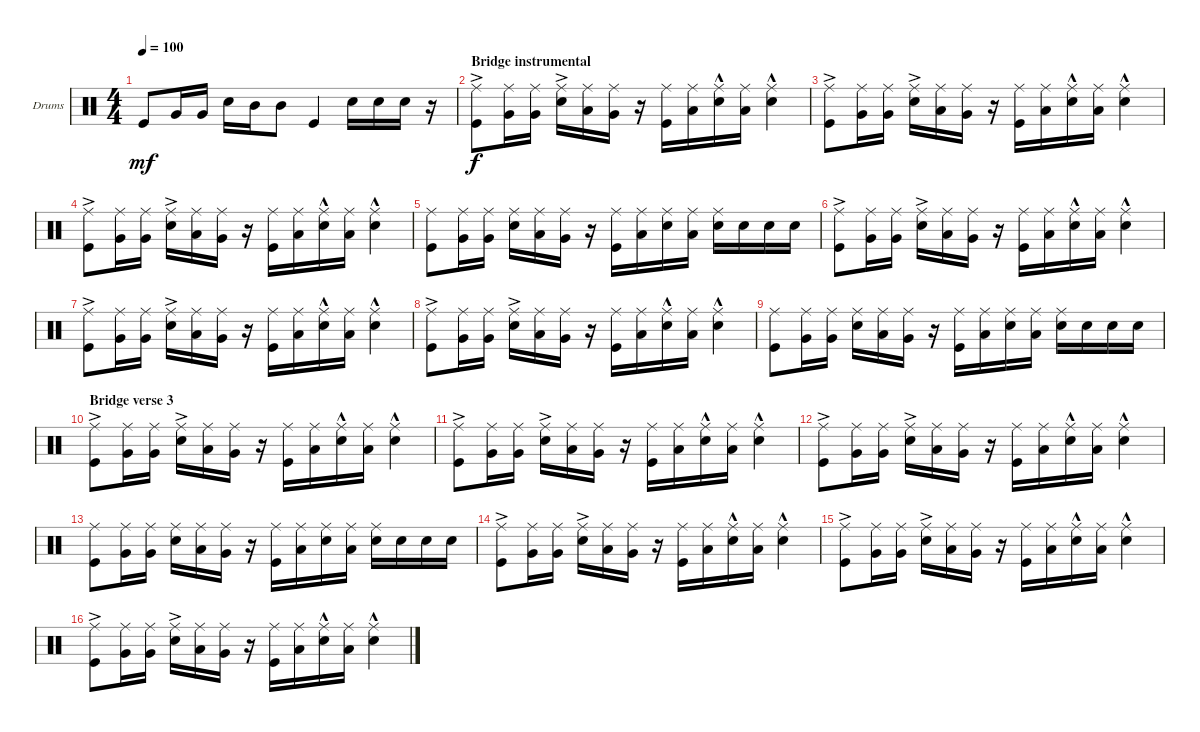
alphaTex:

\defaultSystemsLayout 4
\bracketExtendMode groupsimilarinstruments
\firstSystemTrackNameOrientation horizontal
\otherSystemsTrackNameOrientation horizontal
\track ("Dominic Howard" "Drums") {instrument percussion}
\staff {score}
\articulation defaults
\ts (4 4)
\tempo 100
\clef neutral
\ks c "Kick (hit)".8{dy mf} "Very Low Tom (hit)".16 "Very Low Tom (hit)".16 "Snare (hit) 2".16 "Mid Tom (hit)".16 "Mid Tom (hit)".8 "Kick (hit)".4 "Snare (hit) 2".16 "Snare (hit) 2".16 "Snare (hit) 2".16
r.16 |
\section ("" "Bridge instrumental")
("Kick (hit)"{ac} "Ride (middle)").8{dy f} ("Very Low Tom (hit)" "Ride (middle)").16 ("Very Low Tom (hit)" "Ride (middle)").16 ("Snare (hit) 2"{ac} "Ride (middle)").16 ("Low Tom (hit)" "Ride (middle)").16 ("Very Low Tom (hit)" "Ride (middle)").16 r.16 ("Kick (hit)" "Ride (middle)").16 ("Low Tom (hit)" "Ride (middle)").16 ("Snare (hit) 2"{hac} "Ride (middle)").16 ("Low Tom (hit)" "Ride (middle)").16 ("Snare (hit) 2"{hac} "Ride (middle)").4 |
("Kick (hit)"{ac} "Ride (middle)").8 ("Very Low Tom (hit)" "Ride (middle)").16 ("Very Low Tom (hit)" "Ride (middle)").16 ("Snare (hit) 2"{ac} "Ride (middle)").16 ("Low Tom (hit)" "Ride (middle)").16 ("Very Low Tom (hit)" "Ride (middle)").16 r.16 ("Kick (hit)" "Ride (middle)").16 ("Low Tom (hit)" "Ride (middle)").16 ("Snare (hit) 2"{hac} "Ride (middle)").16 ("Low Tom (hit)" "Ride (middle)").16 ("Snare (hit) 2"{hac} "Ride (middle)").4 |
("Kick (hit)"{ac} "Ride (middle)").8 ("Very Low Tom (hit)" "Ride (middle)").16 ("Very Low Tom (hit)" "Ride (middle)").16 ("Snare (hit) 2"{ac} "Ride (middle)").16 ("Low Tom (hit)" "Ride (middle)").16 ("Very Low Tom (hit)" "Ride (middle)").16 r.16 ("Kick (hit)" "Ride (middle)").16 ("Low Tom (hit)" "Ride (middle)").16 ("Snare (hit) 2"{hac} "Ride (middle)").16 ("Low Tom (hit)" "Ride (middle)").16 ("Snare (hit) 2"{hac} "Ride (middle)").4 |
("Kick (hit)" "Ride (middle)").8 ("Very Low Tom (hit)" "Ride (middle)").16 ("Very Low Tom (hit)" "Ride (middle)").16 ("Snare (hit) 2" "Ride (middle)").16 ("Low Tom (hit)" "Ride (middle)").16 ("Very Low Tom (hit)" "Ride (middle)").16 r.16 ("Kick (hit)" "Ride (middle)").16 ("Low Tom (hit)" "Ride (middle)").16 ("Snare (hit) 2" "Ride (middle)").16 ("Low Tom (hit)" "Ride (middle)").16 ("Snare (hit) 2" "Ride (middle)").16 "Snare (hit) 2".16 "Snare (hit) 2".16 "Snare (hit) 2".16 |
("Kick (hit)"{ac} "Ride (middle)").8 ("Very Low Tom (hit)" "Ride (middle)").16 ("Very Low Tom (hit)" "Ride (middle)").16 ("Snare (hit) 2"{ac} "Ride (middle)").16 ("Low Tom (hit)" "Ride (middle)").16 ("Very Low Tom (hit)" "Ride (middle)").16 r.16 ("Kick (hit)" "Ride (middle)").16 ("Low Tom (hit)" "Ride (middle)").16 ("Snare (hit) 2"{hac} "Ride (middle)").16 ("Low Tom (hit)" "Ride (middle)").16 ("Snare (hit) 2"{hac} "Ride (middle)").4 |
("Kick (hit)"{ac} "Ride (middle)").8 ("Very Low Tom (hit)" "Ride (middle)").16 ("Very Low Tom (hit)" "Ride (middle)").16 ("Snare (hit) 2"{ac} "Ride (middle)").16 ("Low Tom (hit)" "Ride (middle)").16 ("Very Low Tom (hit)" "Ride (middle)").16 r.16 ("Kick (hit)" "Ride (middle)").16 ("Low Tom (hit)" "Ride (middle)").16 ("Snare (hit) 2"{hac} "Ride (middle)").16 ("Low Tom (hit)" "Ride (middle)").16 ("Snare (hit) 2"{hac} "Ride (middle)").4 |
("Kick (hit)"{ac} "Ride (middle)").8 ("Very Low Tom (hit)" "Ride (middle)").16 ("Very Low Tom (hit)" "Ride (middle)").16 ("Snare (hit) 2"{ac} "Ride (middle)").16 ("Low Tom (hit)" "Ride (middle)").16 ("Very Low Tom (hit)" "Ride (middle)").16 r.16 ("Kick (hit)" "Ride (middle)").16 ("Low Tom (hit)" "Ride (middle)").16 ("Snare (hit) 2"{hac} "Ride (middle)").16 ("Low Tom (hit)" "Ride (middle)").16 ("Snare (hit) 2"{hac} "Ride (middle)").4 |
("Kick (hit)" "Ride (middle)").8 ("Very Low Tom (hit)" "Ride (middle)").16 ("Very Low Tom (hit)" "Ride (middle)").16 ("Snare (hit) 2" "Ride (middle)").16 ("Low Tom (hit)" "Ride (middle)").16 ("Very Low Tom (hit)" "Ride (middle)").16 r.16 ("Kick (hit)" "Ride (middle)").16 ("Low Tom (hit)" "Ride (middle)").16 ("Snare (hit) 2" "Ride (middle)").16 ("Low Tom (hit)" "Ride (middle)").16 ("Snare (hit) 2" "Ride (middle)").16 "Snare (hit) 2".16 "Snare (hit) 2".16 "Snare (hit) 2".16 |
\section ("" "Bridge verse 3")
("Kick (hit)"{ac} "Ride (middle)").8 ("Very Low Tom (hit)" "Ride (middle)").16 ("Very Low Tom (hit)" "Ride (middle)").16 ("Snare (hit) 2"{ac} "Ride (middle)").16 ("Low Tom (hit)" "Ride (middle)").16 ("Very Low Tom (hit)" "Ride (middle)").16 r.16 ("Kick (hit)" "Ride (middle)").16 ("Low Tom (hit)" "Ride (middle)").16 ("Snare (hit) 2"{hac} "Ride (middle)").16 ("Low Tom (hit)" "Ride (middle)").16 ("Snare (hit) 2"{hac} "Ride (middle)").4 |
("Kick (hit)"{ac} "Ride (middle)").8 ("Very Low Tom (hit)" "Ride (middle)").16 ("Very Low Tom (hit)" "Ride (middle)").16 ("Snare (hit) 2"{ac} "Ride (middle)").16 ("Low Tom (hit)" "Ride (middle)").16 ("Very Low Tom (hit)" "Ride (middle)").16 r.16 ("Kick (hit)" "Ride (middle)").16 ("Low Tom (hit)" "Ride (middle)").16 ("Snare (hit) 2"{hac} "Ride (middle)").16 ("Low Tom (hit)" "Ride (middle)").16 ("Snare (hit) 2"{hac} "Ride (middle)").4 |
("Kick (hit)"{ac} "Ride (middle)").8 ("Very Low Tom (hit)" "Ride (middle)").16 ("Very Low Tom (hit)" "Ride (middle)").16 ("Snare (hit) 2"{ac} "Ride (middle)").16 ("Low Tom (hit)" "Ride (middle)").16 ("Very Low Tom (hit)" "Ride (middle)").16 r.16 ("Kick (hit)" "Ride (middle)").16 ("Low Tom (hit)" "Ride (middle)").16 ("Snare (hit) 2"{hac} "Ride (middle)").16 ("Low Tom (hit)" "Ride (middle)").16 ("Snare (hit) 2"{hac} "Ride (middle)").4 |
("Kick (hit)" "Ride (middle)").8 ("Very Low Tom (hit)" "Ride (middle)").16 ("Very Low Tom (hit)" "Ride (middle)").16 ("Snare (hit) 2" "Ride (middle)").16 ("Low Tom (hit)" "Ride (middle)").16 ("Very Low Tom (hit)" "Ride (middle)").16 r.16 ("Kick (hit)" "Ride (middle)").16 ("Low Tom (hit)" "Ride (middle)").16 ("Snare (hit) 2" "Ride (middle)").16 ("Low Tom (hit)" "Ride (middle)").16 ("Snare (hit) 2" "Ride (middle)").16 "Snare (hit) 2".16 "Snare (hit) 2".16 "Snare (hit) 2".16 |
("Kick (hit)"{ac} "Ride (middle)").8 ("Very Low Tom (hit)" "Ride (middle)").16 ("Very Low Tom (hit)" "Ride (middle)").16 ("Snare (hit) 2"{ac} "Ride (middle)").16 ("Low Tom (hit)" "Ride (middle)").16 ("Very Low Tom (hit)" "Ride (middle)").16 r.16 ("Kick (hit)" "Ride (middle)").16 ("Low Tom (hit)" "Ride (middle)").16 ("Snare (hit) 2"{hac} "Ride (middle)").16 ("Low Tom (hit)" "Ride (middle)").16 ("Snare (hit) 2"{hac} "Ride (middle)").4 |
("Kick (hit)"{ac} "Ride (middle)").8 ("Very Low Tom (hit)" "Ride (middle)").16 ("Very Low Tom (hit)" "Ride (middle)").16 ("Snare (hit) 2"{ac} "Ride (middle)").16 ("Low Tom (hit)" "Ride (middle)").16 ("Very Low Tom (hit)" "Ride (middle)").16 r.16 ("Kick (hit)" "Ride (middle)").16 ("Low Tom (hit)" "Ride (middle)").16 ("Snare (hit) 2"{hac} "Ride (middle)").16 ("Low Tom (hit)" "Ride (middle)").16 ("Snare (hit) 2"{hac} "Ride (middle)").4 |
("Kick (hit)"{ac} "Ride (middle)").8 ("Very Low Tom (hit)" "Ride (middle)").16 ("Very Low Tom (hit)" "Ride (middle)").16 ("Snare (hit) 2"{ac} "Ride (middle)").16 ("Low Tom (hit)" "Ride (middle)").16 ("Very Low Tom (hit)" "Ride (middle)").16 r.16 ("Kick (hit)" "Ride (middle)").16 ("Low Tom (hit)" "Ride (middle)").16 ("Snare (hit) 2"{hac} "Ride (middle)").16 ("Low Tom (hit)" "Ride (middle)").16 ("Snare (hit) 2"{hac} "Ride (middle)").4
